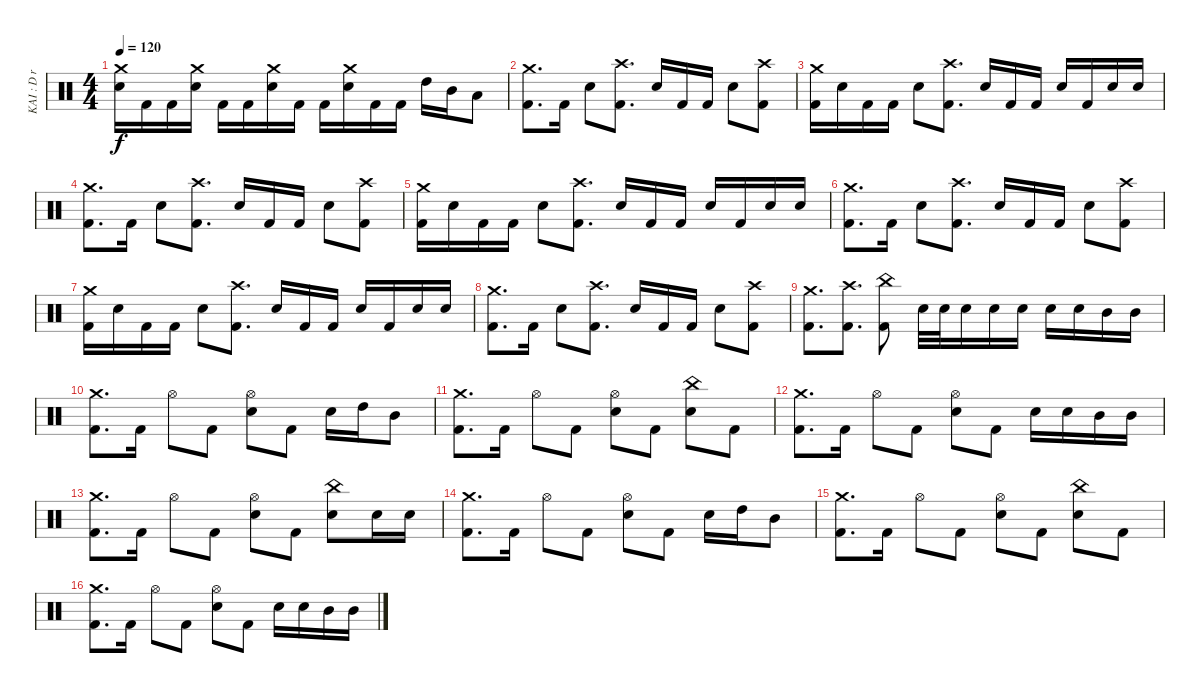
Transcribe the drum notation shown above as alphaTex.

\track ("KAI : D r u m S" "KAI : D r ") {instrument percussion}
\staff {score}
\articulation defaults
\ts (4 4)
\tempo 120
\clef neutral
\ks c
("Crash medium (hit)" "Electric Snare (hit)").16{dy f} "Kick (hit) 2".16 "Kick (hit) 2".16 ("Crash medium (hit)" "Electric Snare (hit)").16 "Kick (hit) 2".16 "Kick (hit) 2".16 ("Crash medium (hit)" "Electric Snare (hit)").16 "Kick (hit) 2".16 "Kick (hit) 2".16 ("Crash medium (hit)" "Electric Snare (hit)").16 "Kick (hit) 2".16 "Kick (hit) 2".16 "High Tom (hit)".16 "Mid Tom (hit)".16 "Low Tom (hit)".8 |
("Crash medium (hit)" "Kick (hit) 2").8{d} "Kick (hit) 2".16 "Electric Snare (hit)".8 ("Crash high (hit)" "Kick (hit) 2").8{d} "Electric Snare (hit)".16 "Kick (hit) 2".16 "Kick (hit) 2".16 "Electric Snare (hit)".8 ("Crash high (hit)" "Kick (hit) 2").8 |
("Crash medium (hit)" "Kick (hit) 2").16 "Electric Snare (hit)".16 "Kick (hit) 2".16 "Kick (hit) 2".16 "Electric Snare (hit)".8 ("Crash high (hit)" "Kick (hit) 2").8{d} "Electric Snare (hit)".16 "Kick (hit) 2".16 "Kick (hit) 2".16 "Electric Snare (hit)".16 "Kick (hit) 2".16 "Electric Snare (hit)".16 "Electric Snare (hit)".16 |
("Crash medium (hit)" "Kick (hit) 2").8{d} "Kick (hit) 2".16 "Electric Snare (hit)".8 ("Crash high (hit)" "Kick (hit) 2").8{d} "Electric Snare (hit)".16 "Kick (hit) 2".16 "Kick (hit) 2".16 "Electric Snare (hit)".8 ("Crash high (hit)" "Kick (hit) 2").8 |
("Crash medium (hit)" "Kick (hit) 2").16 "Electric Snare (hit)".16 "Kick (hit) 2".16 "Kick (hit) 2".16 "Electric Snare (hit)".8 ("Crash high (hit)" "Kick (hit) 2").8{d} "Electric Snare (hit)".16 "Kick (hit) 2".16 "Kick (hit) 2".16 "Electric Snare (hit)".16 "Kick (hit) 2".16 "Electric Snare (hit)".16 "Electric Snare (hit)".16 |
("Crash medium (hit)" "Kick (hit) 2").8{d} "Kick (hit) 2".16 "Electric Snare (hit)".8 ("Crash high (hit)" "Kick (hit) 2").8{d} "Electric Snare (hit)".16 "Kick (hit) 2".16 "Kick (hit) 2".16 "Electric Snare (hit)".8 ("Crash high (hit)" "Kick (hit) 2").8 |
("Crash medium (hit)" "Kick (hit) 2").16 "Electric Snare (hit)".16 "Kick (hit) 2".16 "Kick (hit) 2".16 "Electric Snare (hit)".8 ("Crash high (hit)" "Kick (hit) 2").8{d} "Electric Snare (hit)".16 "Kick (hit) 2".16 "Kick (hit) 2".16 "Electric Snare (hit)".16 "Kick (hit) 2".16 "Electric Snare (hit)".16 "Electric Snare (hit)".16 |
("Crash medium (hit)" "Kick (hit) 2").8{d} "Kick (hit) 2".16 "Electric Snare (hit)".8 ("Crash high (hit)" "Kick (hit) 2").8{d} "Electric Snare (hit)".16 "Kick (hit) 2".16 "Kick (hit) 2".16 "Electric Snare (hit)".8 ("Crash high (hit)" "Kick (hit) 2").8 |
("Crash medium (hit)" "Kick (hit) 2").8{d} ("Crash high (hit)" "Kick (hit) 2").8{d} ("China (hit)" "Kick (hit) 2").8 "Electric Snare (hit)".32 "Electric Snare (hit)".32 "Electric Snare (hit)".16 "Electric Snare (hit)".16 "Electric Snare (hit)".16 "Electric Snare (hit)".16 "Electric Snare (hit)".16 "Mid Tom (hit)".16 "Mid Tom (hit)".16 |
("Crash medium (hit)" "Kick (hit) 2").8{d} "Kick (hit) 2".16 "Hi-Hat (open)".8 "Kick (hit) 2".8 ("Hi-Hat (open)" "Electric Snare (hit)").8 "Kick (hit) 2".8 "Electric Snare (hit)".16 "High Tom (hit)".16 "Mid Tom (hit)".8 |
("Crash medium (hit)" "Kick (hit) 2").8{d} "Kick (hit) 2".16 "Hi-Hat (open)".8 "Kick (hit) 2".8 ("Hi-Hat (open)" "Electric Snare (hit)").8 "Kick (hit) 2".8 ("China (hit)" "Electric Snare (hit)").8 "Kick (hit) 2".8 |
("Crash medium (hit)" "Kick (hit) 2").8{d} "Kick (hit) 2".16 "Hi-Hat (open)".8 "Kick (hit) 2".8 ("Hi-Hat (open)" "Electric Snare (hit)").8 "Kick (hit) 2".8 "Electric Snare (hit)".16 "Electric Snare (hit)".16 "Mid Tom (hit)".16 "Mid Tom (hit)".16 |
("Crash medium (hit)" "Kick (hit) 2").8{d} "Kick (hit) 2".16 "Hi-Hat (open)".8 "Kick (hit) 2".8 ("Hi-Hat (open)" "Electric Snare (hit)").8 "Kick (hit) 2".8 ("China (hit)" "Electric Snare (hit)").8 "Electric Snare (hit)".16 "Electric Snare (hit)".16 |
("Crash medium (hit)" "Kick (hit) 2").8{d} "Kick (hit) 2".16 "Hi-Hat (open)".8 "Kick (hit) 2".8 ("Hi-Hat (open)" "Electric Snare (hit)").8 "Kick (hit) 2".8 "Electric Snare (hit)".16 "High Tom (hit)".16 "Mid Tom (hit)".8 |
("Crash medium (hit)" "Kick (hit) 2").8{d} "Kick (hit) 2".16 "Hi-Hat (open)".8 "Kick (hit) 2".8 ("Hi-Hat (open)" "Electric Snare (hit)").8 "Kick (hit) 2".8 ("China (hit)" "Electric Snare (hit)").8 "Kick (hit) 2".8 |
("Crash medium (hit)" "Kick (hit) 2").8{d} "Kick (hit) 2".16 "Hi-Hat (open)".8 "Kick (hit) 2".8 ("Hi-Hat (open)" "Electric Snare (hit)").8 "Kick (hit) 2".8 "Electric Snare (hit)".16 "Electric Snare (hit)".16 "Mid Tom (hit)".16 "Mid Tom (hit)".16
